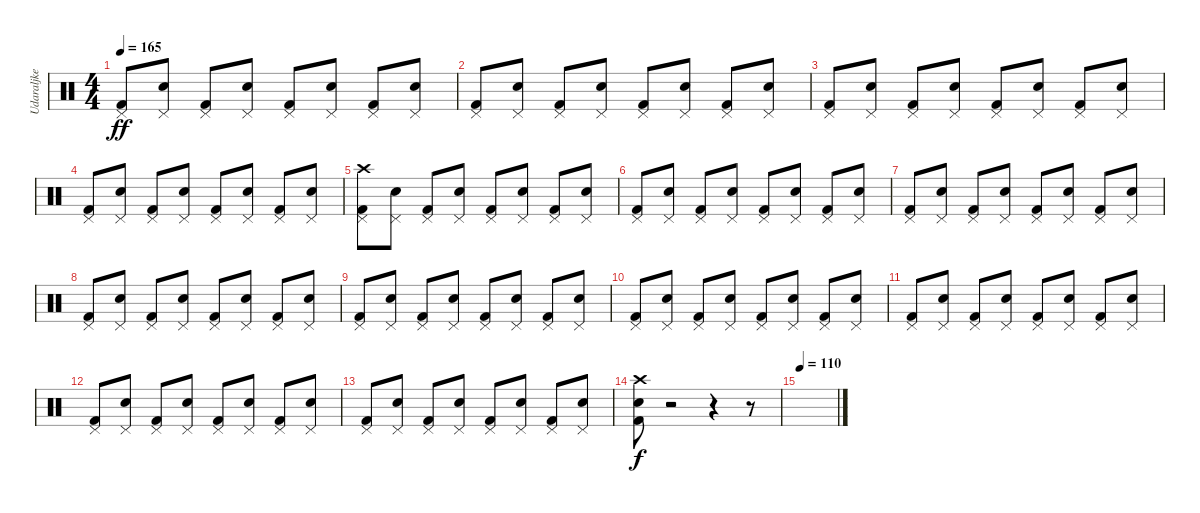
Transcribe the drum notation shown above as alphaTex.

\track ("Udaraljke" "Udaraljke") {instrument percussion}
\staff {score}
\articulation defaults
\ts (4 4)
\tempo 165
\clef neutral
\ks c
("Kick (hit) 2" "Pedal Hi-Hat (hit)").8{dy ff} ("Snare (hit) 2" "Pedal Hi-Hat (hit)").8 ("Kick (hit) 2" "Pedal Hi-Hat (hit)").8 ("Snare (hit) 2" "Pedal Hi-Hat (hit)").8 ("Kick (hit) 2" "Pedal Hi-Hat (hit)").8 ("Snare (hit) 2" "Pedal Hi-Hat (hit)").8 ("Kick (hit) 2" "Pedal Hi-Hat (hit)").8 ("Snare (hit) 2" "Pedal Hi-Hat (hit)").8 |
("Kick (hit) 2" "Pedal Hi-Hat (hit)").8 ("Snare (hit) 2" "Pedal Hi-Hat (hit)").8 ("Kick (hit) 2" "Pedal Hi-Hat (hit)").8 ("Snare (hit) 2" "Pedal Hi-Hat (hit)").8 ("Kick (hit) 2" "Pedal Hi-Hat (hit)").8 ("Snare (hit) 2" "Pedal Hi-Hat (hit)").8 ("Kick (hit) 2" "Pedal Hi-Hat (hit)").8 ("Snare (hit) 2" "Pedal Hi-Hat (hit)").8 |
("Kick (hit) 2" "Pedal Hi-Hat (hit)").8 ("Snare (hit) 2" "Pedal Hi-Hat (hit)").8 ("Kick (hit) 2" "Pedal Hi-Hat (hit)").8 ("Snare (hit) 2" "Pedal Hi-Hat (hit)").8 ("Kick (hit) 2" "Pedal Hi-Hat (hit)").8 ("Snare (hit) 2" "Pedal Hi-Hat (hit)").8 ("Kick (hit) 2" "Pedal Hi-Hat (hit)").8 ("Snare (hit) 2" "Pedal Hi-Hat (hit)").8 |
("Kick (hit) 2" "Pedal Hi-Hat (hit)").8 ("Snare (hit) 2" "Pedal Hi-Hat (hit)").8 ("Kick (hit) 2" "Pedal Hi-Hat (hit)").8 ("Snare (hit) 2" "Pedal Hi-Hat (hit)").8 ("Kick (hit) 2" "Pedal Hi-Hat (hit)").8 ("Snare (hit) 2" "Pedal Hi-Hat (hit)").8 ("Kick (hit) 2" "Pedal Hi-Hat (hit)").8 ("Snare (hit) 2" "Pedal Hi-Hat (hit)").8 |
("Kick (hit) 2" "Pedal Hi-Hat (hit)" "Crash high (hit)").8 ("Snare (hit) 2" "Pedal Hi-Hat (hit)").8 ("Kick (hit) 2" "Pedal Hi-Hat (hit)").8 ("Snare (hit) 2" "Pedal Hi-Hat (hit)").8 ("Kick (hit) 2" "Pedal Hi-Hat (hit)").8 ("Snare (hit) 2" "Pedal Hi-Hat (hit)").8 ("Kick (hit) 2" "Pedal Hi-Hat (hit)").8 ("Snare (hit) 2" "Pedal Hi-Hat (hit)").8 |
("Kick (hit) 2" "Pedal Hi-Hat (hit)").8 ("Snare (hit) 2" "Pedal Hi-Hat (hit)").8 ("Kick (hit) 2" "Pedal Hi-Hat (hit)").8 ("Snare (hit) 2" "Pedal Hi-Hat (hit)").8 ("Kick (hit) 2" "Pedal Hi-Hat (hit)").8 ("Snare (hit) 2" "Pedal Hi-Hat (hit)").8 ("Kick (hit) 2" "Pedal Hi-Hat (hit)").8 ("Snare (hit) 2" "Pedal Hi-Hat (hit)").8 |
("Kick (hit) 2" "Pedal Hi-Hat (hit)").8 ("Snare (hit) 2" "Pedal Hi-Hat (hit)").8 ("Kick (hit) 2" "Pedal Hi-Hat (hit)").8 ("Snare (hit) 2" "Pedal Hi-Hat (hit)").8 ("Kick (hit) 2" "Pedal Hi-Hat (hit)").8 ("Snare (hit) 2" "Pedal Hi-Hat (hit)").8 ("Kick (hit) 2" "Pedal Hi-Hat (hit)").8 ("Snare (hit) 2" "Pedal Hi-Hat (hit)").8 |
("Kick (hit) 2" "Pedal Hi-Hat (hit)").8 ("Snare (hit) 2" "Pedal Hi-Hat (hit)").8 ("Kick (hit) 2" "Pedal Hi-Hat (hit)").8 ("Snare (hit) 2" "Pedal Hi-Hat (hit)").8 ("Kick (hit) 2" "Pedal Hi-Hat (hit)").8 ("Snare (hit) 2" "Pedal Hi-Hat (hit)").8 ("Kick (hit) 2" "Pedal Hi-Hat (hit)").8 ("Snare (hit) 2" "Pedal Hi-Hat (hit)").8 |
("Kick (hit) 2" "Pedal Hi-Hat (hit)").8 ("Snare (hit) 2" "Pedal Hi-Hat (hit)").8 ("Kick (hit) 2" "Pedal Hi-Hat (hit)").8 ("Snare (hit) 2" "Pedal Hi-Hat (hit)").8 ("Kick (hit) 2" "Pedal Hi-Hat (hit)").8 ("Snare (hit) 2" "Pedal Hi-Hat (hit)").8 ("Kick (hit) 2" "Pedal Hi-Hat (hit)").8 ("Snare (hit) 2" "Pedal Hi-Hat (hit)").8 |
("Kick (hit) 2" "Pedal Hi-Hat (hit)").8 ("Snare (hit) 2" "Pedal Hi-Hat (hit)").8 ("Kick (hit) 2" "Pedal Hi-Hat (hit)").8 ("Snare (hit) 2" "Pedal Hi-Hat (hit)").8 ("Kick (hit) 2" "Pedal Hi-Hat (hit)").8 ("Snare (hit) 2" "Pedal Hi-Hat (hit)").8 ("Kick (hit) 2" "Pedal Hi-Hat (hit)").8 ("Snare (hit) 2" "Pedal Hi-Hat (hit)").8 |
("Kick (hit) 2" "Pedal Hi-Hat (hit)").8 ("Snare (hit) 2" "Pedal Hi-Hat (hit)").8 ("Kick (hit) 2" "Pedal Hi-Hat (hit)").8 ("Snare (hit) 2" "Pedal Hi-Hat (hit)").8 ("Kick (hit) 2" "Pedal Hi-Hat (hit)").8 ("Snare (hit) 2" "Pedal Hi-Hat (hit)").8 ("Kick (hit) 2" "Pedal Hi-Hat (hit)").8 ("Snare (hit) 2" "Pedal Hi-Hat (hit)").8 |
("Kick (hit) 2" "Pedal Hi-Hat (hit)").8 ("Snare (hit) 2" "Pedal Hi-Hat (hit)").8 ("Kick (hit) 2" "Pedal Hi-Hat (hit)").8 ("Snare (hit) 2" "Pedal Hi-Hat (hit)").8 ("Kick (hit) 2" "Pedal Hi-Hat (hit)").8 ("Snare (hit) 2" "Pedal Hi-Hat (hit)").8 ("Kick (hit) 2" "Pedal Hi-Hat (hit)").8 ("Snare (hit) 2" "Pedal Hi-Hat (hit)").8 |
("Kick (hit) 2" "Pedal Hi-Hat (hit)").8 ("Snare (hit) 2" "Pedal Hi-Hat (hit)").8 ("Kick (hit) 2" "Pedal Hi-Hat (hit)").8 ("Snare (hit) 2" "Pedal Hi-Hat (hit)").8 ("Kick (hit) 2" "Pedal Hi-Hat (hit)").8 ("Snare (hit) 2" "Pedal Hi-Hat (hit)").8 ("Kick (hit) 2" "Pedal Hi-Hat (hit)").8 ("Snare (hit) 2" "Pedal Hi-Hat (hit)").8 |
("Crash high (hit)" "Kick (hit) 2" "Snare (hit) 2").8{dy f} r.2 r.4 r.8 |
\tempo 110
